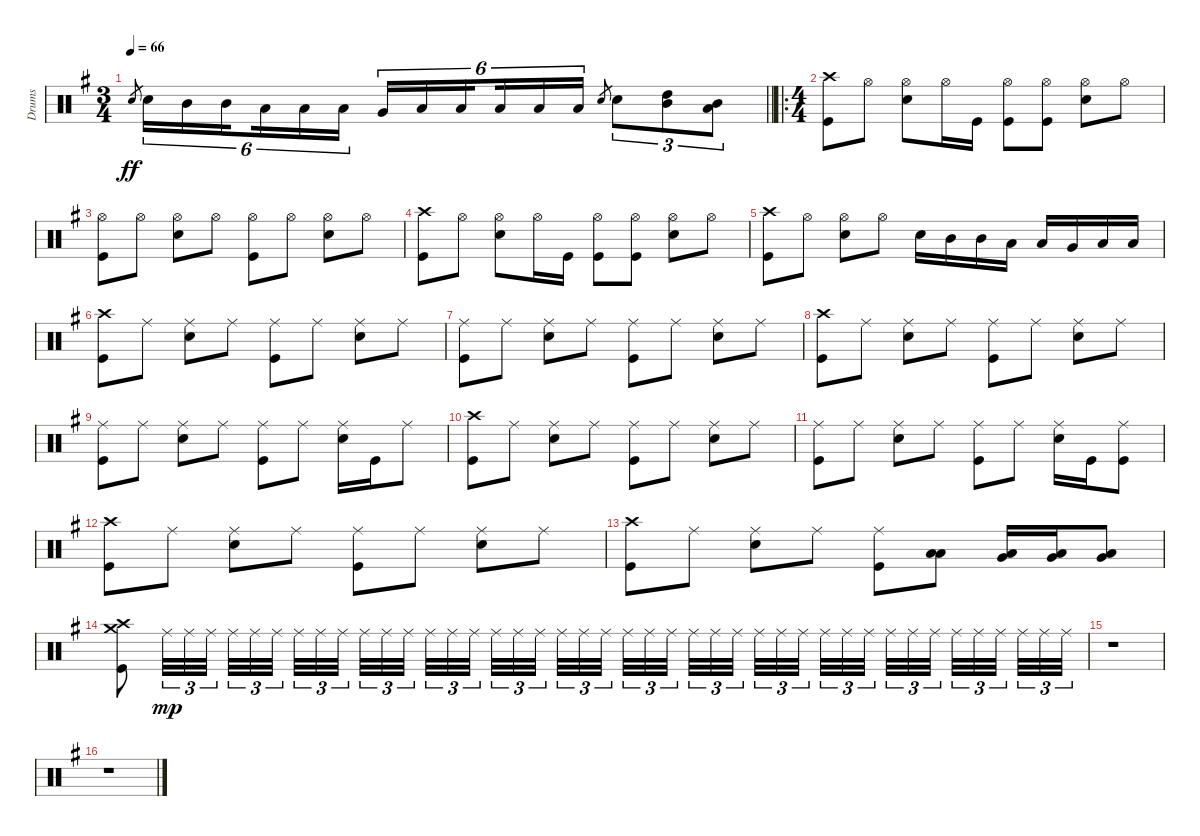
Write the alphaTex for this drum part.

\track ("Drums" "Drums") {instrument percussion}
\staff {score}
\articulation defaults
\ts (3 4)
\tempo 66
\clef neutral
\barLineRight lightlight
\ks g "Snare (hit) 2".8{gr dy ff} "Snare (hit) 2".16{tu (6 4)} "Mid Tom (hit)".16{tu (6 4)} "Mid Tom (hit)".16{tu (6 4) beam splitsecondary} "Low Tom (hit)".16{tu (6 4)} "Low Tom (hit)".16{tu (6 4)} "Low Tom (hit)".16{tu (6 4)} "Very Low Tom (hit)".16{tu (6 4)} "Low Floor Tom (hit)".16{tu (6 4)} "Low Floor Tom (hit)".16{tu (6 4) beam splitsecondary} "Low Floor Tom (hit)".16{tu (6 4)} "Low Floor Tom (hit)".16{tu (6 4)} "Low Floor Tom (hit)".16{tu (6 4)} "Snare (hit) 2".8{gr} "Snare (hit) 2".8{tu (3 2)}
("High Tom (hit)" "Mid Tom (hit)").8{tu (3 2)} ("Mid Tom (hit)" "Low Tom (hit)").8{tu (3 2)} |
\ro
\ts (4 4)
("Crash high (hit)" "Kick (hit)").8{beam Down} "Hi-Hat (open)".8{beam Down} ("Hi-Hat (open)" "Snare (hit) 2").8 "Hi-Hat (open)".16 "Kick (hit)".16 ("Hi-Hat (open)" "Kick (hit)").8 ("Hi-Hat (open)" "Kick (hit)").8 ("Hi-Hat (open)" "Snare (hit) 2").8 "Hi-Hat (open)".8 |
("Hi-Hat (open)" "Kick (hit)").8 "Hi-Hat (open)".8 ("Hi-Hat (open)" "Snare (hit) 2").8 "Hi-Hat (open)".8 ("Hi-Hat (open)" "Kick (hit)").8 "Hi-Hat (open)".8 ("Hi-Hat (open)" "Snare (hit) 2").8 "Hi-Hat (open)".8 |
("Crash high (hit)" "Kick (hit)").8{beam Down} "Hi-Hat (open)".8{beam Down} ("Hi-Hat (open)" "Snare (hit) 2").8 "Hi-Hat (open)".16 "Kick (hit)".16 ("Hi-Hat (open)" "Kick (hit)").8 ("Hi-Hat (open)" "Kick (hit)").8 ("Hi-Hat (open)" "Snare (hit) 2").8 "Hi-Hat (open)".8 |
("Crash high (hit)" "Kick (hit)").8 "Hi-Hat (open)".8 ("Hi-Hat (open)" "Snare (hit) 2").8 "Hi-Hat (open)".8 "Snare (hit) 2".16 "Mid Tom (hit)".16 "Mid Tom (hit)".16 "Low Tom (hit)".16 "Low Tom (hit)".16 "Very Low Tom (hit)".16 "Low Floor Tom (hit)".16 "Low Floor Tom (hit)".16 |
("Crash high (hit)" "Kick (hit)").8 "Ride (middle)".8 ("Ride (middle)" "Snare (hit) 2").8 "Ride (middle)".8 ("Ride (middle)" "Kick (hit)").8 "Ride (middle)".8 ("Ride (middle)" "Snare (hit) 2").8 "Ride (middle)".8 |
("Ride (middle)" "Kick (hit)").8 "Ride (middle)".8 ("Ride (middle)" "Snare (hit) 2").8 "Ride (middle)".8 ("Ride (middle)" "Kick (hit)").8 "Ride (middle)".8 ("Ride (middle)" "Snare (hit) 2").8 "Ride (middle)".8 |
("Crash high (hit)" "Kick (hit)").8 "Ride (middle)".8 ("Ride (middle)" "Snare (hit) 2").8 "Ride (middle)".8 ("Ride (middle)" "Kick (hit)").8 "Ride (middle)".8 ("Ride (middle)" "Snare (hit) 2").8 "Ride (middle)".8 |
("Ride (middle)" "Kick (hit)").8 "Ride (middle)".8 ("Ride (middle)" "Snare (hit) 2").8 "Ride (middle)".8 ("Ride (middle)" "Kick (hit)").8 "Ride (middle)".8 ("Ride (middle)" "Snare (hit) 2").16 "Kick (hit)".16 "Ride (middle)".8 |
("Crash high (hit)" "Kick (hit)").8 "Ride (middle)".8 ("Ride (middle)" "Snare (hit) 2").8 "Ride (middle)".8 ("Ride (middle)" "Kick (hit)").8 "Ride (middle)".8 ("Ride (middle)" "Snare (hit) 2").8 "Ride (middle)".8 |
("Ride (middle)" "Kick (hit)").8 "Ride (middle)".8 ("Ride (middle)" "Snare (hit) 2").8 "Ride (middle)".8 ("Ride (middle)" "Kick (hit)").8 "Ride (middle)".8 ("Ride (middle)" "Snare (hit) 2").16 "Kick (hit)".16 ("Ride (middle)" "Kick (hit)").8 |
("Crash high (hit)" "Kick (hit)").8 "Ride (middle)".8 ("Ride (middle)" "Snare (hit) 2").8 "Ride (middle)".8 ("Ride (middle)" "Kick (hit)").8 "Ride (middle)".8 ("Ride (middle)" "Snare (hit) 2").8 "Ride (middle)".8 |
("Crash high (hit)" "Kick (hit)").8 "Ride (middle)".8 ("Ride (middle)" "Snare (hit) 2").8 "Ride (middle)".8 ("Ride (middle)" "Kick (hit)").8 ("Low Tom (hit)" "Low Tom (hit)").8 ("Very Low Tom (hit)" "Low Floor Tom (hit)").16 ("Very Low Tom (hit)" "Low Floor Tom (hit)").16 ("Very Low Tom (hit)" "Low Floor Tom (hit)").8 |
("Crash high (hit)" "Crash medium (hit)" "Kick (hit)").8 "Ride (middle)".32{tu (3 2) dy mp} "Ride (middle)".32{tu (3 2)} "Ride (middle)".32{tu (3 2) beam splitsecondary} "Ride (middle)".32{tu (3 2)} "Ride (middle)".32{tu (3 2)} "Ride (middle)".32{tu (3 2)} "Ride (middle)".32{tu (3 2) volume 0} "Ride (middle)".32{tu (3 2)} "Ride (middle)".32{tu (3 2) beam splitsecondary} "Ride (middle)".32{tu (3 2)} "Ride (middle)".32{tu (3 2)} "Ride (middle)".32{tu (3 2) beam splitsecondary} "Ride (middle)".32{tu (3 2)} "Ride (middle)".32{tu (3 2)} "Ride (middle)".32{tu (3 2) beam splitsecondary} "Ride (middle)".32{tu (3 2)} "Ride (middle)".32{tu (3 2)} "Ride (middle)".32{tu (3 2)} "Ride (middle)".32{tu (3 2)} "Ride (middle)".32{tu (3 2)} "Ride (middle)".32{tu (3 2) beam splitsecondary} "Ride (middle)".32{tu (3 2)} "Ride (middle)".32{tu (3 2)} "Ride (middle)".32{tu (3 2) beam splitsecondary} "Ride (middle)".32{tu (3 2)} "Ride (middle)".32{tu (3 2)} "Ride (middle)".32{tu (3 2) beam splitsecondary} "Ride (middle)".32{tu (3 2)} "Ride (middle)".32{tu (3 2)} "Ride (middle)".32{tu (3 2)} "Ride (middle)".32{tu (3 2)} "Ride (middle)".32{tu (3 2)} "Ride (middle)".32{tu (3 2) beam splitsecondary} "Ride (middle)".32{tu (3 2)} "Ride (middle)".32{tu (3 2)} "Ride (middle)".32{tu (3 2) beam splitsecondary} "Ride (middle)".32{tu (3 2)} "Ride (middle)".32{tu (3 2)} "Ride (middle)".32{tu (3 2) beam splitsecondary} "Ride (middle)".32{tu (3 2)} "Ride (middle)".32{tu (3 2)} "Ride (middle)".32{tu (3 2)} |
r.1 |
r.1
